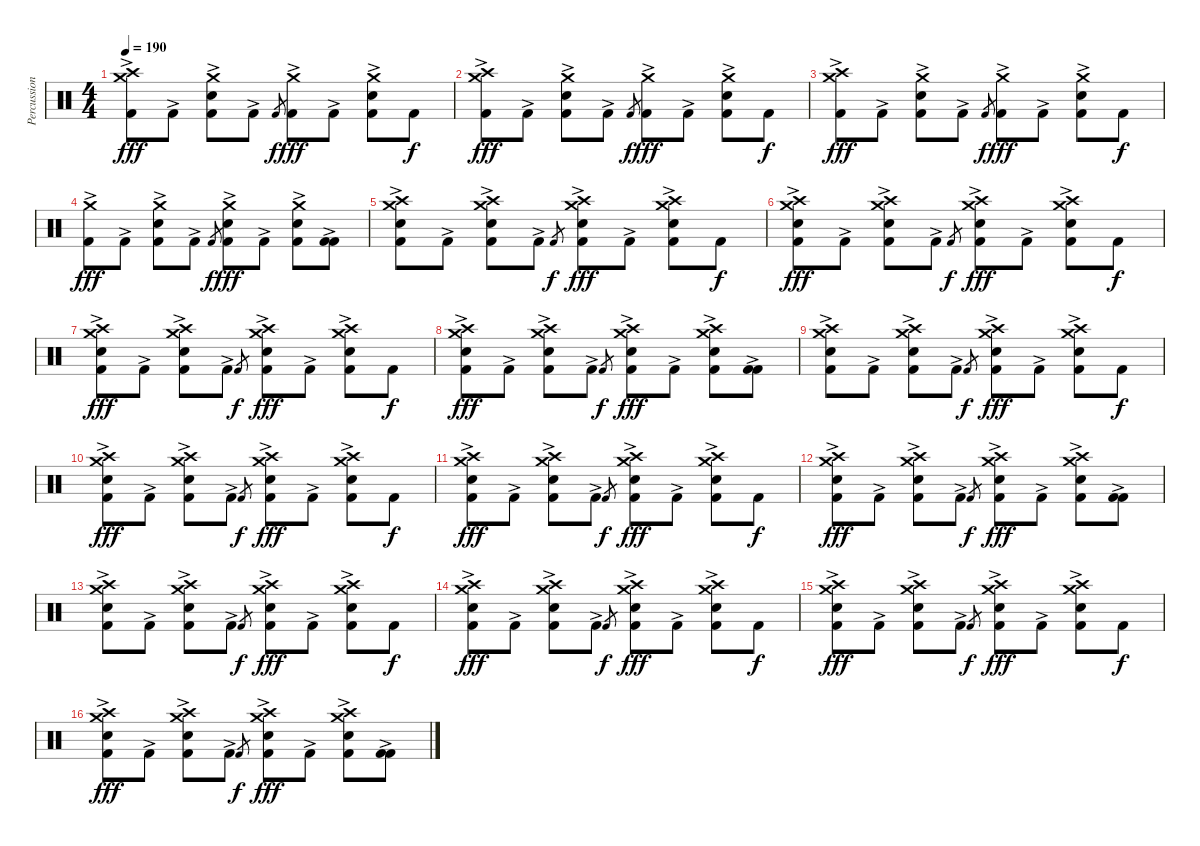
\track ("Percussions" "Percussion") {instrument percussion}
\staff {score}
\articulation defaults
\ts (4 4)
\tempo 190
\clef neutral
\ks c
("Crash high (hit)" "Crash medium (hit)" "Kick (hit) 2"{ac}).8{dy fff} "Kick (hit) 2"{ac}.8 ("Crash medium (hit)" "Electric Snare (hit)" "Kick (hit) 2"{ac}).8 "Kick (hit) 2"{ac}.8 "Kick (hit) 2".8{gr dy f} ("Crash medium (hit)" "Kick (hit) 2"{ac}).8{dy fff} "Kick (hit) 2"{ac}.8 ("Crash medium (hit)" "Electric Snare (hit)" "Kick (hit) 2"{ac}).8 "Kick (hit) 2".8{dy f} |
("Crash high (hit)" "Crash medium (hit)" "Kick (hit) 2"{ac}).8{dy fff} "Kick (hit) 2"{ac}.8 ("Crash medium (hit)" "Electric Snare (hit)" "Kick (hit) 2"{ac}).8 "Kick (hit) 2"{ac}.8 "Kick (hit) 2".8{gr dy f} ("Crash medium (hit)" "Kick (hit) 2"{ac}).8{dy fff} "Kick (hit) 2"{ac}.8 ("Crash medium (hit)" "Electric Snare (hit)" "Kick (hit) 2"{ac}).8 "Kick (hit) 2".8{dy f} |
("Crash high (hit)" "Crash medium (hit)" "Kick (hit) 2"{ac}).8{dy fff} "Kick (hit) 2"{ac}.8 ("Crash medium (hit)" "Electric Snare (hit)" "Kick (hit) 2"{ac}).8 "Kick (hit) 2"{ac}.8 "Kick (hit) 2".8{gr dy f} ("Crash medium (hit)" "Kick (hit) 2"{ac}).8{dy fff} "Kick (hit) 2"{ac}.8 ("Crash medium (hit)" "Electric Snare (hit)" "Kick (hit) 2"{ac}).8 "Kick (hit) 2".8{dy f} |
("Crash medium (hit)" "Kick (hit) 2"{ac}).8{dy fff} "Kick (hit) 2"{ac}.8 ("Crash medium (hit)" "Electric Snare (hit)" "Kick (hit) 2"{ac}).8 "Kick (hit) 2"{ac}.8 "Kick (hit) 2".8{gr dy f} ("Crash medium (hit)" "Electric Snare (hit)" "Kick (hit) 2"{ac}).8{dy fff} "Kick (hit) 2"{ac}.8 ("Crash medium (hit)" "Electric Snare (hit)" "Kick (hit) 2"{ac}).8 ("Kick (hit) 2" "Kick (hit) 2"{ac}).8 |
("Crash high (hit)" "Crash medium (hit)" "Electric Snare (hit)" "Kick (hit) 2"{ac}).8 "Kick (hit) 2"{ac}.8 ("Crash high (hit)" "Crash medium (hit)" "Electric Snare (hit)" "Kick (hit) 2"{ac}).8 "Kick (hit) 2"{ac}.8 "Kick (hit) 2".8{gr dy f} ("Crash high (hit)" "Crash medium (hit)" "Electric Snare (hit)" "Kick (hit) 2"{ac}).8{dy fff} "Kick (hit) 2"{ac}.8 ("Crash high (hit)" "Crash medium (hit)" "Electric Snare (hit)" "Kick (hit) 2"{ac}).8 "Kick (hit) 2".8{dy f} |
("Crash high (hit)" "Crash medium (hit)" "Electric Snare (hit)" "Kick (hit) 2"{ac}).8{dy fff} "Kick (hit) 2"{ac}.8 ("Crash high (hit)" "Crash medium (hit)" "Electric Snare (hit)" "Kick (hit) 2"{ac}).8 "Kick (hit) 2"{ac}.8 "Kick (hit) 2".8{gr dy f} ("Crash high (hit)" "Crash medium (hit)" "Electric Snare (hit)" "Kick (hit) 2"{ac}).8{dy fff} "Kick (hit) 2"{ac}.8 ("Crash high (hit)" "Crash medium (hit)" "Electric Snare (hit)" "Kick (hit) 2"{ac}).8 "Kick (hit) 2".8{dy f} |
("Crash high (hit)" "Crash medium (hit)" "Electric Snare (hit)" "Kick (hit) 2"{ac}).8{dy fff} "Kick (hit) 2"{ac}.8 ("Crash high (hit)" "Crash medium (hit)" "Electric Snare (hit)" "Kick (hit) 2"{ac}).8 "Kick (hit) 2"{ac}.8 "Kick (hit) 2".8{gr dy f} ("Crash high (hit)" "Crash medium (hit)" "Electric Snare (hit)" "Kick (hit) 2"{ac}).8{dy fff} "Kick (hit) 2"{ac}.8 ("Crash high (hit)" "Crash medium (hit)" "Electric Snare (hit)" "Kick (hit) 2"{ac}).8 "Kick (hit) 2".8{dy f} |
("Crash high (hit)" "Crash medium (hit)" "Electric Snare (hit)" "Kick (hit) 2"{ac}).8{dy fff} "Kick (hit) 2"{ac}.8 ("Crash high (hit)" "Crash medium (hit)" "Electric Snare (hit)" "Kick (hit) 2"{ac}).8 "Kick (hit) 2"{ac}.8 "Kick (hit) 2".8{gr dy f} ("Crash high (hit)" "Crash medium (hit)" "Electric Snare (hit)" "Kick (hit) 2"{ac}).8{dy fff} "Kick (hit) 2"{ac}.8 ("Crash high (hit)" "Crash medium (hit)" "Electric Snare (hit)" "Kick (hit) 2"{ac}).8 ("Kick (hit) 2" "Kick (hit) 2"{ac}).8 |
("Crash high (hit)" "Crash medium (hit)" "Electric Snare (hit)" "Kick (hit) 2"{ac}).8 "Kick (hit) 2"{ac}.8 ("Crash high (hit)" "Crash medium (hit)" "Electric Snare (hit)" "Kick (hit) 2"{ac}).8 "Kick (hit) 2"{ac}.8 "Kick (hit) 2".8{gr dy f} ("Crash high (hit)" "Crash medium (hit)" "Electric Snare (hit)" "Kick (hit) 2"{ac}).8{dy fff} "Kick (hit) 2"{ac}.8 ("Crash high (hit)" "Crash medium (hit)" "Electric Snare (hit)" "Kick (hit) 2"{ac}).8 "Kick (hit) 2".8{dy f} |
("Crash high (hit)" "Crash medium (hit)" "Electric Snare (hit)" "Kick (hit) 2"{ac}).8{dy fff} "Kick (hit) 2"{ac}.8 ("Crash high (hit)" "Crash medium (hit)" "Electric Snare (hit)" "Kick (hit) 2"{ac}).8 "Kick (hit) 2"{ac}.8 "Kick (hit) 2".8{gr dy f} ("Crash high (hit)" "Crash medium (hit)" "Electric Snare (hit)" "Kick (hit) 2"{ac}).8{dy fff} "Kick (hit) 2"{ac}.8 ("Crash high (hit)" "Crash medium (hit)" "Electric Snare (hit)" "Kick (hit) 2"{ac}).8 "Kick (hit) 2".8{dy f} |
("Crash high (hit)" "Crash medium (hit)" "Electric Snare (hit)" "Kick (hit) 2"{ac}).8{dy fff} "Kick (hit) 2"{ac}.8 ("Crash high (hit)" "Crash medium (hit)" "Electric Snare (hit)" "Kick (hit) 2"{ac}).8 "Kick (hit) 2"{ac}.8 "Kick (hit) 2".8{gr dy f} ("Crash high (hit)" "Crash medium (hit)" "Electric Snare (hit)" "Kick (hit) 2"{ac}).8{dy fff} "Kick (hit) 2"{ac}.8 ("Crash high (hit)" "Crash medium (hit)" "Electric Snare (hit)" "Kick (hit) 2"{ac}).8 "Kick (hit) 2".8{dy f} |
("Crash high (hit)" "Crash medium (hit)" "Electric Snare (hit)" "Kick (hit) 2"{ac}).8{dy fff} "Kick (hit) 2"{ac}.8 ("Crash high (hit)" "Crash medium (hit)" "Electric Snare (hit)" "Kick (hit) 2"{ac}).8 "Kick (hit) 2"{ac}.8 "Kick (hit) 2".8{gr dy f} ("Crash high (hit)" "Crash medium (hit)" "Electric Snare (hit)" "Kick (hit) 2"{ac}).8{dy fff} "Kick (hit) 2"{ac}.8 ("Crash high (hit)" "Crash medium (hit)" "Electric Snare (hit)" "Kick (hit) 2"{ac}).8 ("Kick (hit) 2" "Kick (hit) 2"{ac}).8 |
("Crash high (hit)" "Crash medium (hit)" "Electric Snare (hit)" "Kick (hit) 2"{ac}).8 "Kick (hit) 2"{ac}.8 ("Crash high (hit)" "Crash medium (hit)" "Electric Snare (hit)" "Kick (hit) 2"{ac}).8 "Kick (hit) 2"{ac}.8 "Kick (hit) 2".8{gr dy f} ("Crash high (hit)" "Crash medium (hit)" "Electric Snare (hit)" "Kick (hit) 2"{ac}).8{dy fff} "Kick (hit) 2"{ac}.8 ("Crash high (hit)" "Crash medium (hit)" "Electric Snare (hit)" "Kick (hit) 2"{ac}).8 "Kick (hit) 2".8{dy f} |
("Crash high (hit)" "Crash medium (hit)" "Electric Snare (hit)" "Kick (hit) 2"{ac}).8{dy fff} "Kick (hit) 2"{ac}.8 ("Crash high (hit)" "Crash medium (hit)" "Electric Snare (hit)" "Kick (hit) 2"{ac}).8 "Kick (hit) 2"{ac}.8 "Kick (hit) 2".8{gr dy f} ("Crash high (hit)" "Crash medium (hit)" "Electric Snare (hit)" "Kick (hit) 2"{ac}).8{dy fff} "Kick (hit) 2"{ac}.8 ("Crash high (hit)" "Crash medium (hit)" "Electric Snare (hit)" "Kick (hit) 2"{ac}).8 "Kick (hit) 2".8{dy f} |
("Crash high (hit)" "Crash medium (hit)" "Electric Snare (hit)" "Kick (hit) 2"{ac}).8{dy fff} "Kick (hit) 2"{ac}.8 ("Crash high (hit)" "Crash medium (hit)" "Electric Snare (hit)" "Kick (hit) 2"{ac}).8 "Kick (hit) 2"{ac}.8 "Kick (hit) 2".8{gr dy f} ("Crash high (hit)" "Crash medium (hit)" "Electric Snare (hit)" "Kick (hit) 2"{ac}).8{dy fff} "Kick (hit) 2"{ac}.8 ("Crash high (hit)" "Crash medium (hit)" "Electric Snare (hit)" "Kick (hit) 2"{ac}).8 "Kick (hit) 2".8{dy f} |
("Crash high (hit)" "Crash medium (hit)" "Electric Snare (hit)" "Kick (hit) 2"{ac}).8{dy fff} "Kick (hit) 2"{ac}.8 ("Crash high (hit)" "Crash medium (hit)" "Electric Snare (hit)" "Kick (hit) 2"{ac}).8 "Kick (hit) 2"{ac}.8 "Kick (hit) 2".8{gr dy f} ("Crash high (hit)" "Crash medium (hit)" "Electric Snare (hit)" "Kick (hit) 2"{ac}).8{dy fff} "Kick (hit) 2"{ac}.8 ("Crash high (hit)" "Crash medium (hit)" "Electric Snare (hit)" "Kick (hit) 2"{ac}).8 ("Kick (hit) 2" "Kick (hit) 2"{ac}).8
